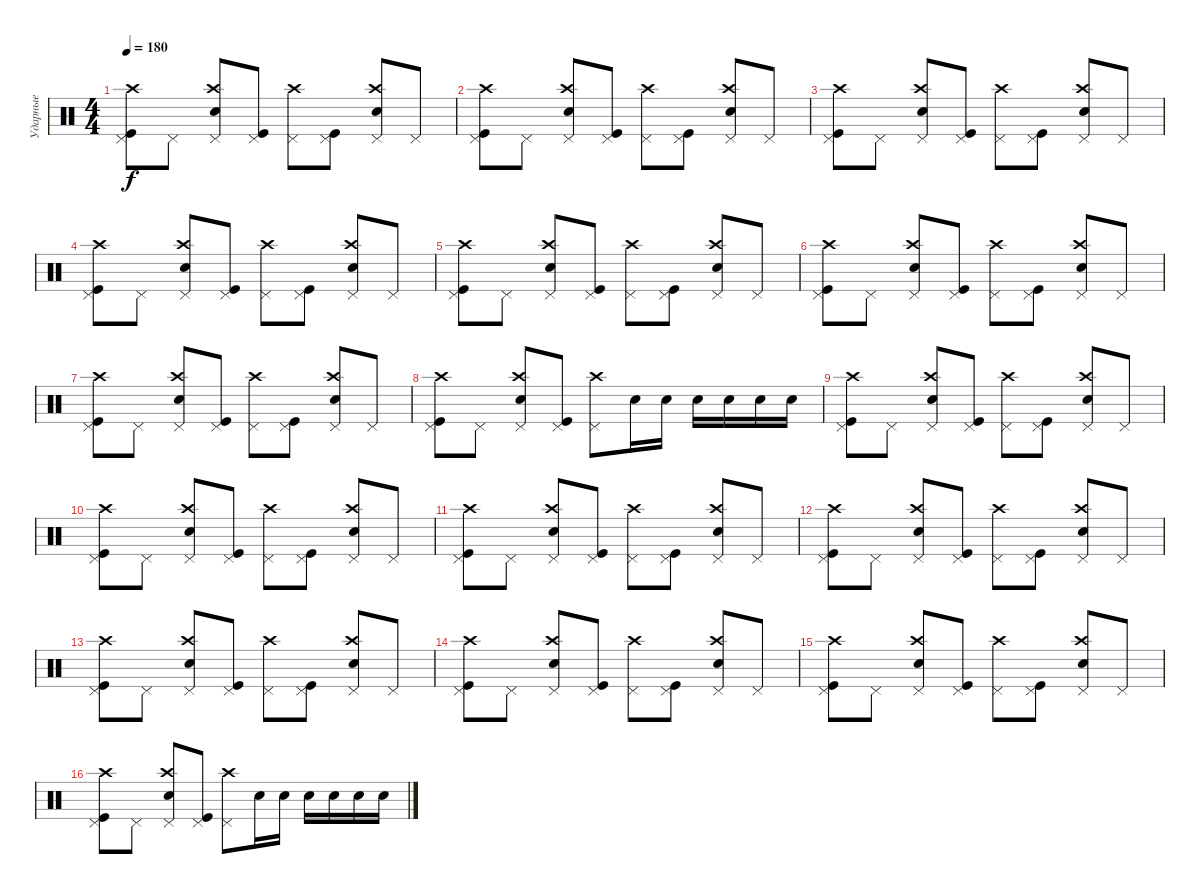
\track ("Ударные" "Ударные") {instrument percussion}
\staff {score}
\articulation defaults
\ts (4 4)
\tempo 180
\clef neutral
\ks c
("Pedal Hi-Hat (hit)" "Kick (hit)" "Crash high (hit)").8{dy f} "Pedal Hi-Hat (hit)".8 ("Pedal Hi-Hat (hit)" "Electric Snare (hit)" "Crash high (hit)").8 ("Pedal Hi-Hat (hit)" "Kick (hit)").8 ("Pedal Hi-Hat (hit)" "Crash high (hit)").8 ("Pedal Hi-Hat (hit)" "Kick (hit)").8 ("Pedal Hi-Hat (hit)" "Electric Snare (hit)" "Crash high (hit)").8 "Pedal Hi-Hat (hit)".8 |
("Pedal Hi-Hat (hit)" "Kick (hit)" "Crash high (hit)").8 "Pedal Hi-Hat (hit)".8 ("Pedal Hi-Hat (hit)" "Electric Snare (hit)" "Crash high (hit)").8 ("Pedal Hi-Hat (hit)" "Kick (hit)").8 ("Pedal Hi-Hat (hit)" "Crash high (hit)").8 ("Pedal Hi-Hat (hit)" "Kick (hit)").8 ("Pedal Hi-Hat (hit)" "Electric Snare (hit)" "Crash high (hit)").8 "Pedal Hi-Hat (hit)".8 |
("Pedal Hi-Hat (hit)" "Kick (hit)" "Crash high (hit)").8 "Pedal Hi-Hat (hit)".8 ("Pedal Hi-Hat (hit)" "Electric Snare (hit)" "Crash high (hit)").8 ("Pedal Hi-Hat (hit)" "Kick (hit)").8 ("Pedal Hi-Hat (hit)" "Crash high (hit)").8 ("Pedal Hi-Hat (hit)" "Kick (hit)").8 ("Pedal Hi-Hat (hit)" "Electric Snare (hit)" "Crash high (hit)").8 "Pedal Hi-Hat (hit)".8 |
("Pedal Hi-Hat (hit)" "Kick (hit)" "Crash high (hit)").8 "Pedal Hi-Hat (hit)".8 ("Pedal Hi-Hat (hit)" "Electric Snare (hit)" "Crash high (hit)").8 ("Pedal Hi-Hat (hit)" "Kick (hit)").8 ("Pedal Hi-Hat (hit)" "Crash high (hit)").8 ("Pedal Hi-Hat (hit)" "Kick (hit)").8 ("Pedal Hi-Hat (hit)" "Electric Snare (hit)" "Crash high (hit)").8 "Pedal Hi-Hat (hit)".8 |
("Pedal Hi-Hat (hit)" "Kick (hit)" "Crash high (hit)").8 "Pedal Hi-Hat (hit)".8 ("Pedal Hi-Hat (hit)" "Electric Snare (hit)" "Crash high (hit)").8 ("Pedal Hi-Hat (hit)" "Kick (hit)").8 ("Pedal Hi-Hat (hit)" "Crash high (hit)").8 ("Pedal Hi-Hat (hit)" "Kick (hit)").8 ("Pedal Hi-Hat (hit)" "Electric Snare (hit)" "Crash high (hit)").8 "Pedal Hi-Hat (hit)".8 |
("Pedal Hi-Hat (hit)" "Kick (hit)" "Crash high (hit)").8 "Pedal Hi-Hat (hit)".8 ("Pedal Hi-Hat (hit)" "Electric Snare (hit)" "Crash high (hit)").8 ("Pedal Hi-Hat (hit)" "Kick (hit)").8 ("Pedal Hi-Hat (hit)" "Crash high (hit)").8 ("Pedal Hi-Hat (hit)" "Kick (hit)").8 ("Pedal Hi-Hat (hit)" "Electric Snare (hit)" "Crash high (hit)").8 "Pedal Hi-Hat (hit)".8 |
("Pedal Hi-Hat (hit)" "Kick (hit)" "Crash high (hit)").8 "Pedal Hi-Hat (hit)".8 ("Pedal Hi-Hat (hit)" "Electric Snare (hit)" "Crash high (hit)").8 ("Pedal Hi-Hat (hit)" "Kick (hit)").8 ("Pedal Hi-Hat (hit)" "Crash high (hit)").8 ("Pedal Hi-Hat (hit)" "Kick (hit)").8 ("Pedal Hi-Hat (hit)" "Electric Snare (hit)" "Crash high (hit)").8 "Pedal Hi-Hat (hit)".8 |
("Pedal Hi-Hat (hit)" "Kick (hit)" "Crash high (hit)").8 "Pedal Hi-Hat (hit)".8 ("Pedal Hi-Hat (hit)" "Electric Snare (hit)" "Crash high (hit)").8 ("Pedal Hi-Hat (hit)" "Kick (hit)").8 ("Pedal Hi-Hat (hit)" "Crash high (hit)").8 "Electric Snare (hit)".16 "Electric Snare (hit)".16 "Electric Snare (hit)".16 "Electric Snare (hit)".16 "Electric Snare (hit)".16 "Electric Snare (hit)".16 |
("Pedal Hi-Hat (hit)" "Kick (hit)" "Crash high (hit)").8 "Pedal Hi-Hat (hit)".8 ("Pedal Hi-Hat (hit)" "Electric Snare (hit)" "Crash high (hit)").8 ("Pedal Hi-Hat (hit)" "Kick (hit)").8 ("Pedal Hi-Hat (hit)" "Crash high (hit)").8 ("Pedal Hi-Hat (hit)" "Kick (hit)").8 ("Pedal Hi-Hat (hit)" "Electric Snare (hit)" "Crash high (hit)").8 "Pedal Hi-Hat (hit)".8 |
("Pedal Hi-Hat (hit)" "Kick (hit)" "Crash high (hit)").8 "Pedal Hi-Hat (hit)".8 ("Pedal Hi-Hat (hit)" "Electric Snare (hit)" "Crash high (hit)").8 ("Pedal Hi-Hat (hit)" "Kick (hit)").8 ("Pedal Hi-Hat (hit)" "Crash high (hit)").8 ("Pedal Hi-Hat (hit)" "Kick (hit)").8 ("Pedal Hi-Hat (hit)" "Electric Snare (hit)" "Crash high (hit)").8 "Pedal Hi-Hat (hit)".8 |
("Pedal Hi-Hat (hit)" "Kick (hit)" "Crash high (hit)").8 "Pedal Hi-Hat (hit)".8 ("Pedal Hi-Hat (hit)" "Electric Snare (hit)" "Crash high (hit)").8 ("Pedal Hi-Hat (hit)" "Kick (hit)").8 ("Pedal Hi-Hat (hit)" "Crash high (hit)").8 ("Pedal Hi-Hat (hit)" "Kick (hit)").8 ("Pedal Hi-Hat (hit)" "Electric Snare (hit)" "Crash high (hit)").8 "Pedal Hi-Hat (hit)".8 |
("Pedal Hi-Hat (hit)" "Kick (hit)" "Crash high (hit)").8 "Pedal Hi-Hat (hit)".8 ("Pedal Hi-Hat (hit)" "Electric Snare (hit)" "Crash high (hit)").8 ("Pedal Hi-Hat (hit)" "Kick (hit)").8 ("Pedal Hi-Hat (hit)" "Crash high (hit)").8 ("Pedal Hi-Hat (hit)" "Kick (hit)").8 ("Pedal Hi-Hat (hit)" "Electric Snare (hit)" "Crash high (hit)").8 "Pedal Hi-Hat (hit)".8 |
("Pedal Hi-Hat (hit)" "Kick (hit)" "Crash high (hit)").8 "Pedal Hi-Hat (hit)".8 ("Pedal Hi-Hat (hit)" "Electric Snare (hit)" "Crash high (hit)").8 ("Pedal Hi-Hat (hit)" "Kick (hit)").8 ("Pedal Hi-Hat (hit)" "Crash high (hit)").8 ("Pedal Hi-Hat (hit)" "Kick (hit)").8 ("Pedal Hi-Hat (hit)" "Electric Snare (hit)" "Crash high (hit)").8 "Pedal Hi-Hat (hit)".8 |
("Pedal Hi-Hat (hit)" "Kick (hit)" "Crash high (hit)").8 "Pedal Hi-Hat (hit)".8 ("Pedal Hi-Hat (hit)" "Electric Snare (hit)" "Crash high (hit)").8 ("Pedal Hi-Hat (hit)" "Kick (hit)").8 ("Pedal Hi-Hat (hit)" "Crash high (hit)").8 ("Pedal Hi-Hat (hit)" "Kick (hit)").8 ("Pedal Hi-Hat (hit)" "Electric Snare (hit)" "Crash high (hit)").8 "Pedal Hi-Hat (hit)".8 |
("Pedal Hi-Hat (hit)" "Kick (hit)" "Crash high (hit)").8 "Pedal Hi-Hat (hit)".8 ("Pedal Hi-Hat (hit)" "Electric Snare (hit)" "Crash high (hit)").8 ("Pedal Hi-Hat (hit)" "Kick (hit)").8 ("Pedal Hi-Hat (hit)" "Crash high (hit)").8 ("Pedal Hi-Hat (hit)" "Kick (hit)").8 ("Pedal Hi-Hat (hit)" "Electric Snare (hit)" "Crash high (hit)").8 "Pedal Hi-Hat (hit)".8 |
("Pedal Hi-Hat (hit)" "Kick (hit)" "Crash high (hit)").8 "Pedal Hi-Hat (hit)".8 ("Pedal Hi-Hat (hit)" "Electric Snare (hit)" "Crash high (hit)").8 ("Pedal Hi-Hat (hit)" "Kick (hit)").8 ("Pedal Hi-Hat (hit)" "Crash high (hit)").8 "Electric Snare (hit)".16 "Electric Snare (hit)".16 "Electric Snare (hit)".16 "Electric Snare (hit)".16 "Electric Snare (hit)".16 "Electric Snare (hit)".16
